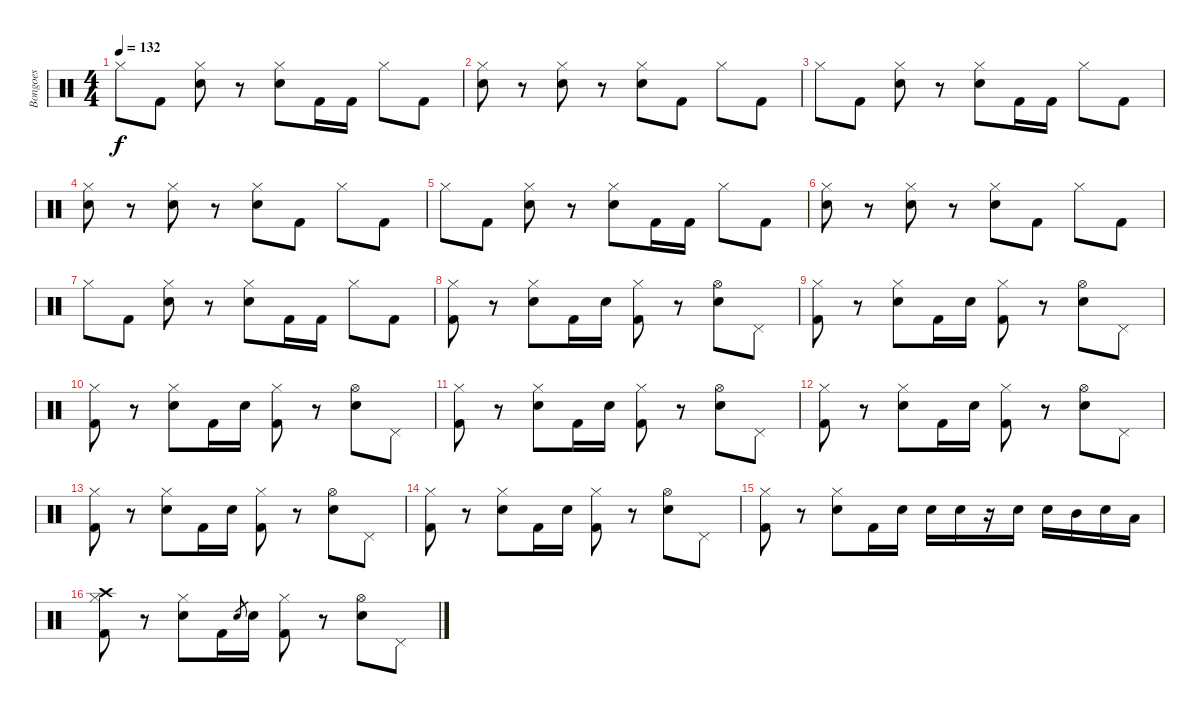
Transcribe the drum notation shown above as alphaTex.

\track ("Bongoes" "Bongoes") {instrument percussion}
\staff {score}
\articulation defaults
\ts (4 4)
\tempo 132
\clef neutral
\ks c "Hi-Hat (closed)".8{dy f} "Kick (hit) 2".8
("Hi-Hat (closed)" "Snare (hit) 2").8 r.8 ("Hi-Hat (closed)" "Snare (hit) 2").8 "Kick (hit) 2".16 "Kick (hit) 2".16 "Hi-Hat (closed)".8 "Kick (hit) 2".8 |
("Hi-Hat (closed)" "Snare (hit) 2").8 r.8 ("Hi-Hat (closed)" "Snare (hit) 2").8 r.8 ("Hi-Hat (closed)" "Snare (hit) 2").8 "Kick (hit) 2".8 "Hi-Hat (closed)".8 "Kick (hit) 2".8 |
"Hi-Hat (closed)".8 "Kick (hit) 2".8 ("Hi-Hat (closed)" "Snare (hit) 2").8 r.8 ("Hi-Hat (closed)" "Snare (hit) 2").8 "Kick (hit) 2".16 "Kick (hit) 2".16 "Hi-Hat (closed)".8 "Kick (hit) 2".8 |
("Hi-Hat (closed)" "Snare (hit) 2").8 r.8 ("Hi-Hat (closed)" "Snare (hit) 2").8 r.8 ("Hi-Hat (closed)" "Snare (hit) 2").8 "Kick (hit) 2".8 "Hi-Hat (closed)".8 "Kick (hit) 2".8 |
"Hi-Hat (closed)".8 "Kick (hit) 2".8 ("Hi-Hat (closed)" "Snare (hit) 2").8 r.8 ("Hi-Hat (closed)" "Snare (hit) 2").8 "Kick (hit) 2".16 "Kick (hit) 2".16 "Hi-Hat (closed)".8 "Kick (hit) 2".8 |
("Hi-Hat (closed)" "Snare (hit) 2").8 r.8 ("Hi-Hat (closed)" "Snare (hit) 2").8 r.8 ("Hi-Hat (closed)" "Snare (hit) 2").8 "Kick (hit) 2".8 "Hi-Hat (closed)".8 "Kick (hit) 2".8 |
"Hi-Hat (closed)".8 "Kick (hit) 2".8 ("Hi-Hat (closed)" "Snare (hit) 2").8 r.8 ("Hi-Hat (closed)" "Snare (hit) 2").8 "Kick (hit) 2".16 "Kick (hit) 2".16 "Hi-Hat (closed)".8 "Kick (hit) 2".8 |
("Hi-Hat (closed)" "Kick (hit) 2").8 r.8 ("Hi-Hat (closed)" "Snare (hit) 2").8 "Kick (hit) 2".16 "Snare (hit) 2".16 ("Hi-Hat (closed)" "Kick (hit) 2").8 r.8 ("Hi-Hat (open)" "Snare (hit) 2").8 "Pedal Hi-Hat (hit)".8 |
("Hi-Hat (closed)" "Kick (hit) 2").8 r.8 ("Hi-Hat (closed)" "Snare (hit) 2").8 "Kick (hit) 2".16 "Snare (hit) 2".16 ("Hi-Hat (closed)" "Kick (hit) 2").8 r.8 ("Hi-Hat (open)" "Snare (hit) 2").8 "Pedal Hi-Hat (hit)".8 |
("Hi-Hat (closed)" "Kick (hit) 2").8 r.8 ("Hi-Hat (closed)" "Snare (hit) 2").8 "Kick (hit) 2".16 "Snare (hit) 2".16 ("Hi-Hat (closed)" "Kick (hit) 2").8 r.8 ("Hi-Hat (open)" "Snare (hit) 2").8 "Pedal Hi-Hat (hit)".8 |
("Hi-Hat (closed)" "Kick (hit) 2").8 r.8 ("Hi-Hat (closed)" "Snare (hit) 2").8 "Kick (hit) 2".16 "Snare (hit) 2".16 ("Hi-Hat (closed)" "Kick (hit) 2").8 r.8 ("Hi-Hat (open)" "Snare (hit) 2").8 "Pedal Hi-Hat (hit)".8 |
("Hi-Hat (closed)" "Kick (hit) 2").8 r.8 ("Hi-Hat (closed)" "Snare (hit) 2").8 "Kick (hit) 2".16 "Snare (hit) 2".16 ("Hi-Hat (closed)" "Kick (hit) 2").8 r.8 ("Hi-Hat (open)" "Snare (hit) 2").8 "Pedal Hi-Hat (hit)".8 |
("Hi-Hat (closed)" "Kick (hit) 2").8 r.8 ("Hi-Hat (closed)" "Snare (hit) 2").8 "Kick (hit) 2".16 "Snare (hit) 2".16 ("Hi-Hat (closed)" "Kick (hit) 2").8 r.8 ("Hi-Hat (open)" "Snare (hit) 2").8 "Pedal Hi-Hat (hit)".8 |
("Hi-Hat (closed)" "Kick (hit) 2").8 r.8 ("Hi-Hat (closed)" "Snare (hit) 2").8 "Kick (hit) 2".16 "Snare (hit) 2".16 ("Hi-Hat (closed)" "Kick (hit) 2").8 r.8 ("Hi-Hat (open)" "Snare (hit) 2").8 "Pedal Hi-Hat (hit)".8 |
("Hi-Hat (closed)" "Kick (hit) 2").8 r.8 ("Hi-Hat (closed)" "Snare (hit) 2").8 "Kick (hit) 2".16 "Snare (hit) 2".16 "Snare (hit) 2".16 "Snare (hit) 2".16 r.16 "Snare (hit) 2".16 "Snare (hit) 2".16 "Mid Tom (hit)".16 "Snare (hit) 2".16 "Low Tom (hit)".16 |
("Hi-Hat (closed)" "Kick (hit) 2" "Crash high (hit)").8 r.8 ("Hi-Hat (closed)" "Snare (hit) 2").8 "Kick (hit) 2".16 "Snare (hit) 2".8{gr} "Snare (hit) 2".16 ("Hi-Hat (closed)" "Kick (hit) 2").8 r.8 ("Hi-Hat (open)" "Snare (hit) 2").8 "Pedal Hi-Hat (hit)".8
